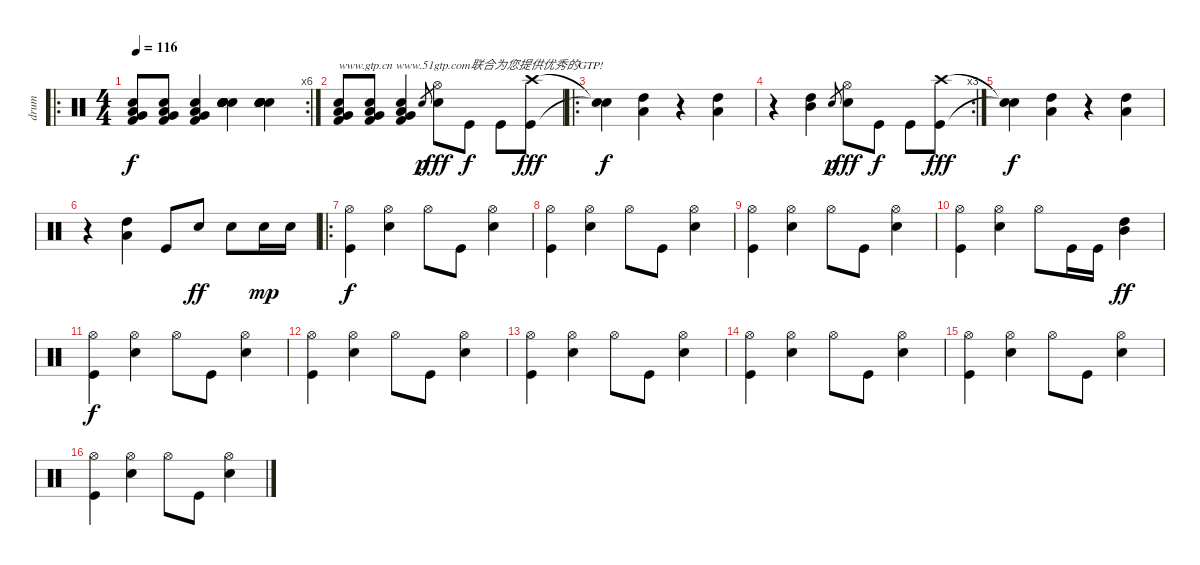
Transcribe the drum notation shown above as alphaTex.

\track ("drum" "drum") {instrument percussion}
\staff {score}
\articulation defaults
\ro
\rc 6
\ts (4 4)
\tempo 116
\clef neutral
\ks c
("Snare (hit)" "Very Low Tom (hit)" "Low Floor Tom (hit)" "Kick (hit) 2").8{dy f} ("Snare (hit)" "Very Low Tom (hit)" "Low Floor Tom (hit)" "Kick (hit) 2").8 ("Snare (hit)" "Very Low Tom (hit)" "Low Floor Tom (hit)" "Kick (hit) 2").4 ("Hand Clap (hit)" "Hand Clap (hit)" "Hand Clap (hit)" "Metronome (bell)" "Hand Clap (hit)" "Hand Clap (hit)").4{bd 120} ("Hand Clap (hit)" "Hand Clap (hit)" "Hand Clap (hit)" "Metronome (bell)" "Hand Clap (hit)" "Hand Clap (hit)").4{bd 120} |
("Snare (hit)" "Very Low Tom (hit)" "Low Floor Tom (hit)" "Kick (hit) 2").8{txt "www.gtp.cn www.51gtp.com联合为您提供优秀的GTP!"} ("Snare (hit)" "Very Low Tom (hit)" "Low Floor Tom (hit)" "Kick (hit) 2").8 ("Snare (hit)" "Very Low Tom (hit)" "Low Floor Tom (hit)" "Kick (hit) 2").4 "Metronome (bell)".8{gr dy p} ("Hi-Hat (open)" "Metronome (bell)").8{dy fff} "Kick (hit)".8{dy f} "Kick (hit)".8 ("Crash high (hit)" "Kick (hit)").8{dy fff} |
\ro
("Snare (hit)"{t} "Snare (hit)"{t}).4{dy f} ("High Tom (hit)" "Low Tom (hit)").4 r.4 ("High Tom (hit)" "Low Tom (hit)").4 |
\rc 3
r.4 ("High Tom (hit)" "Mid Tom (hit)").4 "Metronome (bell)".8{gr dy p} ("Hi-Hat (open)" "Metronome (bell)").8{dy fff} "Kick (hit)".8{dy f} "Kick (hit)".8 ("Crash high (hit)" "Kick (hit)").8{dy fff} |
("Snare (hit)"{t} "Snare (hit)"{t}).4{dy f} ("High Tom (hit)" "Low Tom (hit)").4 r.4 ("High Tom (hit)" "Low Tom (hit)").4 |
r.4 ("High Tom (hit)" "Low Tom (hit)").4 "Kick (hit)".8 "Metronome (bell)".8{dy ff} "Metronome (bell)".8 "Metronome (bell)".16{dy mp} "Metronome (bell)".16 |
\ro
("Hi-Hat (open)" "Kick (hit)").4{dy f} ("Hi-Hat (open)" "Metronome (bell)").4 "Hi-Hat (open)".8 "Kick (hit)".8 ("Hi-Hat (open)" "Metronome (bell)").4 |
("Hi-Hat (open)" "Kick (hit)").4 ("Hi-Hat (open)" "Metronome (bell)").4 "Hi-Hat (open)".8 "Kick (hit)".8 ("Hi-Hat (open)" "Metronome (bell)").4 |
("Hi-Hat (open)" "Kick (hit)").4 ("Hi-Hat (open)" "Metronome (bell)").4 "Hi-Hat (open)".8 "Kick (hit)".8 ("Hi-Hat (open)" "Metronome (bell)").4 |
("Hi-Hat (open)" "Kick (hit)").4 ("Hi-Hat (open)" "Metronome (bell)").4 "Hi-Hat (open)".8 "Kick (hit)".16 "Kick (hit)".16 ("Mid Tom (hit)" "High Tom (hit)").4{dy ff} |
("Hi-Hat (open)" "Kick (hit)").4{dy f} ("Hi-Hat (open)" "Metronome (bell)").4 "Hi-Hat (open)".8 "Kick (hit)".8 ("Hi-Hat (open)" "Metronome (bell)").4 |
("Hi-Hat (open)" "Kick (hit)").4 ("Hi-Hat (open)" "Metronome (bell)").4 "Hi-Hat (open)".8 "Kick (hit)".8 ("Hi-Hat (open)" "Metronome (bell)").4 |
("Hi-Hat (open)" "Kick (hit)").4 ("Hi-Hat (open)" "Metronome (bell)").4 "Hi-Hat (open)".8 "Kick (hit)".8 ("Hi-Hat (open)" "Metronome (bell)").4 |
("Hi-Hat (open)" "Kick (hit)").4 ("Hi-Hat (open)" "Metronome (bell)").4 "Hi-Hat (open)".8 "Kick (hit)".8 ("Hi-Hat (open)" "Metronome (bell)").4 |
("Hi-Hat (open)" "Kick (hit)").4 ("Hi-Hat (open)" "Metronome (bell)").4 "Hi-Hat (open)".8 "Kick (hit)".8 ("Hi-Hat (open)" "Metronome (bell)").4 |
("Hi-Hat (open)" "Kick (hit)").4 ("Hi-Hat (open)" "Metronome (bell)").4 "Hi-Hat (open)".8 "Kick (hit)".8 ("Hi-Hat (open)" "Metronome (bell)").4
